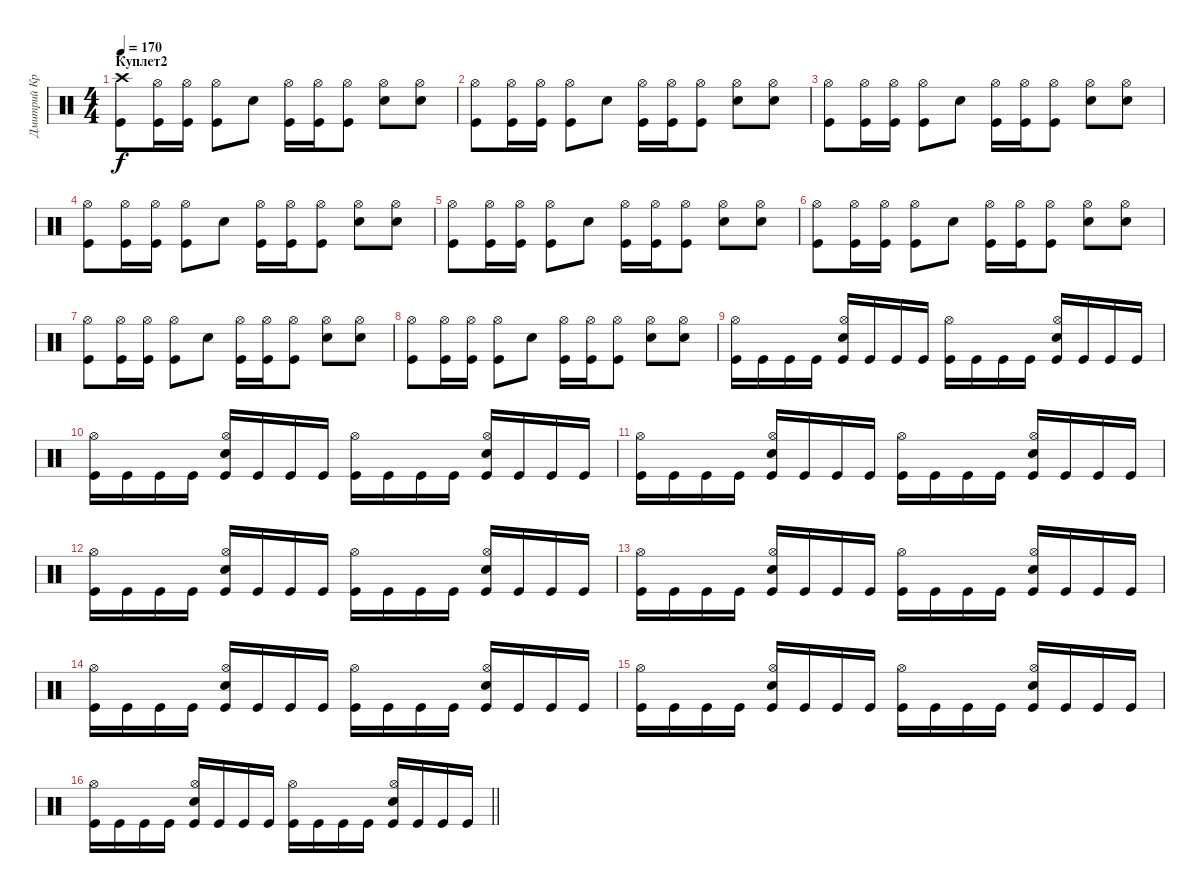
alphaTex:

\track ("Дмитрий Кривенков" "Дмитрий Кр") {instrument percussion}
\staff {score}
\articulation defaults
\ts (4 4)
\section ("" "Куплет2")
\tempo 170
\clef neutral
\ks c
("Crash high (hit)" "Kick (hit)").8{dy f} ("Hi-Hat (open)" "Kick (hit)").16 ("Hi-Hat (open)" "Kick (hit)").16 ("Hi-Hat (open)" "Kick (hit)").8 "Snare (hit) 2".8 ("Hi-Hat (open)" "Kick (hit)").16 ("Hi-Hat (open)" "Kick (hit)").16 ("Hi-Hat (open)" "Kick (hit)").8 ("Hi-Hat (open)" "Snare (hit) 2").8 ("Hi-Hat (open)" "Snare (hit) 2").8 |
("Hi-Hat (open)" "Kick (hit)").8 ("Hi-Hat (open)" "Kick (hit)").16 ("Hi-Hat (open)" "Kick (hit)").16 ("Hi-Hat (open)" "Kick (hit)").8 "Snare (hit) 2".8 ("Hi-Hat (open)" "Kick (hit)").16 ("Hi-Hat (open)" "Kick (hit)").16 ("Hi-Hat (open)" "Kick (hit)").8 ("Hi-Hat (open)" "Snare (hit) 2").8 ("Hi-Hat (open)" "Snare (hit) 2").8 |
("Hi-Hat (open)" "Kick (hit)").8 ("Hi-Hat (open)" "Kick (hit)").16 ("Hi-Hat (open)" "Kick (hit)").16 ("Hi-Hat (open)" "Kick (hit)").8 "Snare (hit) 2".8 ("Hi-Hat (open)" "Kick (hit)").16 ("Hi-Hat (open)" "Kick (hit)").16 ("Hi-Hat (open)" "Kick (hit)").8 ("Hi-Hat (open)" "Snare (hit) 2").8 ("Hi-Hat (open)" "Snare (hit) 2").8 |
("Hi-Hat (open)" "Kick (hit)").8 ("Hi-Hat (open)" "Kick (hit)").16 ("Hi-Hat (open)" "Kick (hit)").16 ("Hi-Hat (open)" "Kick (hit)").8 "Snare (hit) 2".8 ("Hi-Hat (open)" "Kick (hit)").16 ("Hi-Hat (open)" "Kick (hit)").16 ("Hi-Hat (open)" "Kick (hit)").8 ("Hi-Hat (open)" "Snare (hit) 2").8 ("Hi-Hat (open)" "Snare (hit) 2").8 |
("Hi-Hat (open)" "Kick (hit)").8 ("Hi-Hat (open)" "Kick (hit)").16 ("Hi-Hat (open)" "Kick (hit)").16 ("Hi-Hat (open)" "Kick (hit)").8 "Snare (hit) 2".8 ("Hi-Hat (open)" "Kick (hit)").16 ("Hi-Hat (open)" "Kick (hit)").16 ("Hi-Hat (open)" "Kick (hit)").8 ("Hi-Hat (open)" "Snare (hit) 2").8 ("Hi-Hat (open)" "Snare (hit) 2").8 |
("Hi-Hat (open)" "Kick (hit)").8 ("Hi-Hat (open)" "Kick (hit)").16 ("Hi-Hat (open)" "Kick (hit)").16 ("Hi-Hat (open)" "Kick (hit)").8 "Snare (hit) 2".8 ("Hi-Hat (open)" "Kick (hit)").16 ("Hi-Hat (open)" "Kick (hit)").16 ("Hi-Hat (open)" "Kick (hit)").8 ("Hi-Hat (open)" "Snare (hit) 2").8 ("Hi-Hat (open)" "Snare (hit) 2").8 |
("Hi-Hat (open)" "Kick (hit)").8 ("Hi-Hat (open)" "Kick (hit)").16 ("Hi-Hat (open)" "Kick (hit)").16 ("Hi-Hat (open)" "Kick (hit)").8 "Snare (hit) 2".8 ("Hi-Hat (open)" "Kick (hit)").16 ("Hi-Hat (open)" "Kick (hit)").16 ("Hi-Hat (open)" "Kick (hit)").8 ("Hi-Hat (open)" "Snare (hit) 2").8 ("Hi-Hat (open)" "Snare (hit) 2").8 |
("Hi-Hat (open)" "Kick (hit)").8 ("Hi-Hat (open)" "Kick (hit)").16 ("Hi-Hat (open)" "Kick (hit)").16 ("Hi-Hat (open)" "Kick (hit)").8 "Snare (hit) 2".8 ("Hi-Hat (open)" "Kick (hit)").16 ("Hi-Hat (open)" "Kick (hit)").16 ("Hi-Hat (open)" "Kick (hit)").8 ("Hi-Hat (open)" "Snare (hit) 2").8 ("Hi-Hat (open)" "Snare (hit) 2").8 |
("Hi-Hat (open)" "Kick (hit)").16 "Kick (hit)".16 "Kick (hit)".16 "Kick (hit)".16 ("Hi-Hat (open)" "Snare (hit) 2" "Kick (hit)").16 "Kick (hit)".16 "Kick (hit)".16 "Kick (hit)".16 ("Hi-Hat (open)" "Kick (hit)").16 "Kick (hit)".16 "Kick (hit)".16 "Kick (hit)".16 ("Hi-Hat (open)" "Snare (hit) 2" "Kick (hit)").16 "Kick (hit)".16 "Kick (hit)".16 "Kick (hit)".16 |
("Hi-Hat (open)" "Kick (hit)").16 "Kick (hit)".16 "Kick (hit)".16 "Kick (hit)".16 ("Hi-Hat (open)" "Snare (hit) 2" "Kick (hit)").16 "Kick (hit)".16 "Kick (hit)".16 "Kick (hit)".16 ("Hi-Hat (open)" "Kick (hit)").16 "Kick (hit)".16 "Kick (hit)".16 "Kick (hit)".16 ("Hi-Hat (open)" "Snare (hit) 2" "Kick (hit)").16 "Kick (hit)".16 "Kick (hit)".16 "Kick (hit)".16 |
("Hi-Hat (open)" "Kick (hit)").16 "Kick (hit)".16 "Kick (hit)".16 "Kick (hit)".16 ("Hi-Hat (open)" "Snare (hit) 2" "Kick (hit)").16 "Kick (hit)".16 "Kick (hit)".16 "Kick (hit)".16 ("Hi-Hat (open)" "Kick (hit)").16 "Kick (hit)".16 "Kick (hit)".16 "Kick (hit)".16 ("Hi-Hat (open)" "Snare (hit) 2" "Kick (hit)").16 "Kick (hit)".16 "Kick (hit)".16 "Kick (hit)".16 |
("Hi-Hat (open)" "Kick (hit)").16 "Kick (hit)".16 "Kick (hit)".16 "Kick (hit)".16 ("Hi-Hat (open)" "Snare (hit) 2" "Kick (hit)").16 "Kick (hit)".16 "Kick (hit)".16 "Kick (hit)".16 ("Hi-Hat (open)" "Kick (hit)").16 "Kick (hit)".16 "Kick (hit)".16 "Kick (hit)".16 ("Hi-Hat (open)" "Snare (hit) 2" "Kick (hit)").16 "Kick (hit)".16 "Kick (hit)".16 "Kick (hit)".16 |
("Hi-Hat (open)" "Kick (hit)").16 "Kick (hit)".16 "Kick (hit)".16 "Kick (hit)".16 ("Hi-Hat (open)" "Snare (hit) 2" "Kick (hit)").16 "Kick (hit)".16 "Kick (hit)".16 "Kick (hit)".16 ("Hi-Hat (open)" "Kick (hit)").16 "Kick (hit)".16 "Kick (hit)".16 "Kick (hit)".16 ("Hi-Hat (open)" "Snare (hit) 2" "Kick (hit)").16 "Kick (hit)".16 "Kick (hit)".16 "Kick (hit)".16 |
("Hi-Hat (open)" "Kick (hit)").16 "Kick (hit)".16 "Kick (hit)".16 "Kick (hit)".16 ("Hi-Hat (open)" "Snare (hit) 2" "Kick (hit)").16 "Kick (hit)".16 "Kick (hit)".16 "Kick (hit)".16 ("Hi-Hat (open)" "Kick (hit)").16 "Kick (hit)".16 "Kick (hit)".16 "Kick (hit)".16 ("Hi-Hat (open)" "Snare (hit) 2" "Kick (hit)").16 "Kick (hit)".16 "Kick (hit)".16 "Kick (hit)".16 |
("Hi-Hat (open)" "Kick (hit)").16 "Kick (hit)".16 "Kick (hit)".16 "Kick (hit)".16 ("Hi-Hat (open)" "Snare (hit) 2" "Kick (hit)").16 "Kick (hit)".16 "Kick (hit)".16 "Kick (hit)".16 ("Hi-Hat (open)" "Kick (hit)").16 "Kick (hit)".16 "Kick (hit)".16 "Kick (hit)".16 ("Hi-Hat (open)" "Snare (hit) 2" "Kick (hit)").16 "Kick (hit)".16 "Kick (hit)".16 "Kick (hit)".16 |
\barLineRight lightlight
("Hi-Hat (open)" "Kick (hit)").16 "Kick (hit)".16 "Kick (hit)".16 "Kick (hit)".16 ("Hi-Hat (open)" "Snare (hit) 2" "Kick (hit)").16 "Kick (hit)".16 "Kick (hit)".16 "Kick (hit)".16 ("Hi-Hat (open)" "Kick (hit)").16 "Kick (hit)".16 "Kick (hit)".16 "Kick (hit)".16 ("Hi-Hat (open)" "Snare (hit) 2" "Kick (hit)").16 "Kick (hit)".16 "Kick (hit)".16 "Kick (hit)".16
